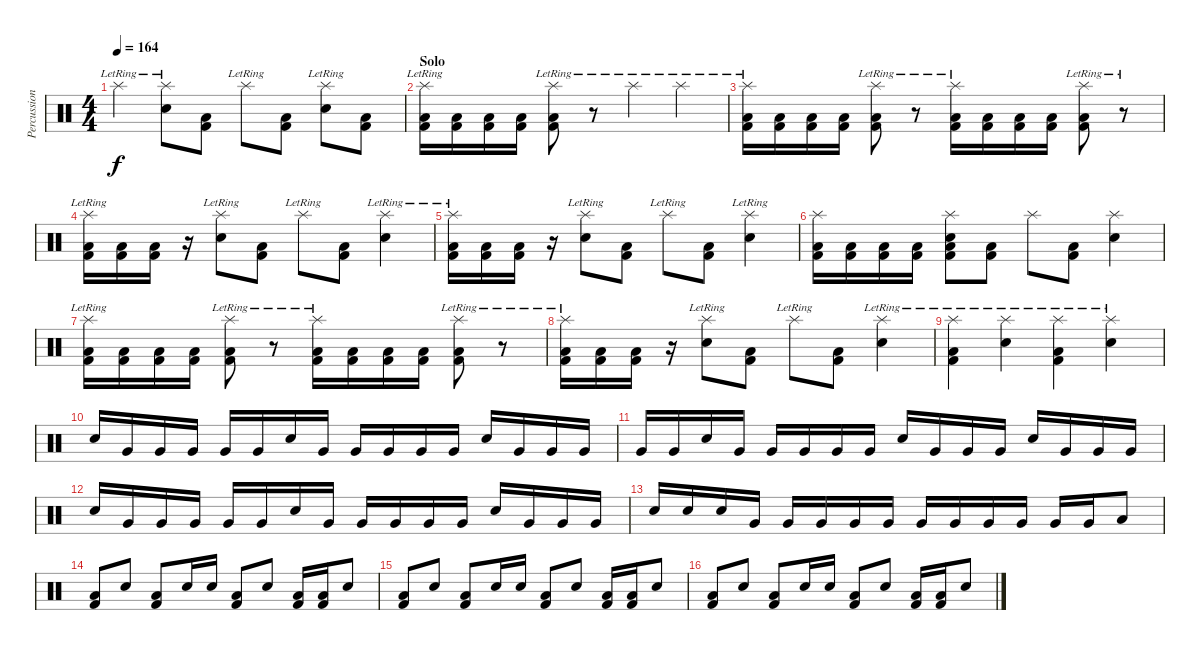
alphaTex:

\track ("Percussion" "Percussion") {instrument percussion}
\staff {score}
\articulation defaults
\ts (4 4)
\tempo 164
\clef neutral
\ks c "Splash (hit)"{lr}.4{dy f}
("Splash (hit)"{lr} "Snare (hit) 2").8 ("Low Floor Tom (hit)" "Kick (hit) 2").8 "Splash (hit)"{lr}.8 ("Low Floor Tom (hit)" "Kick (hit) 2").8 ("Splash (hit)"{lr} "Snare (hit) 2").8 ("Low Floor Tom (hit)" "Kick (hit) 2").8 |
\section ("" "Solo")
("Splash (hit)"{lr} "Low Floor Tom (hit)" "Kick (hit) 2").16 ("Low Floor Tom (hit)" "Kick (hit) 2").16 ("Low Floor Tom (hit)" "Kick (hit) 2").16 ("Low Floor Tom (hit)" "Kick (hit) 2").16 ("Splash (hit)"{lr} "Low Floor Tom (hit)" "Kick (hit) 2").8 r.8 "Splash (hit)"{lr}.4 "Splash (hit)"{lr}.4 |
("Splash (hit)"{lr} "Low Floor Tom (hit)" "Kick (hit) 2").16 ("Low Floor Tom (hit)" "Kick (hit) 2").16 ("Low Floor Tom (hit)" "Kick (hit) 2").16 ("Low Floor Tom (hit)" "Kick (hit) 2").16 ("Splash (hit)"{lr} "Low Floor Tom (hit)" "Kick (hit) 2").8 r.8 ("Splash (hit)"{lr} "Low Floor Tom (hit)" "Kick (hit) 2").16 ("Low Floor Tom (hit)" "Kick (hit) 2").16 ("Low Floor Tom (hit)" "Kick (hit) 2").16 ("Low Floor Tom (hit)" "Kick (hit) 2").16 ("Splash (hit)"{lr} "Low Floor Tom (hit)" "Kick (hit) 2").8 r.8 |
("Splash (hit)"{lr} "Low Floor Tom (hit)" "Kick (hit) 2").16 ("Low Floor Tom (hit)" "Kick (hit) 2").16 ("Low Floor Tom (hit)" "Kick (hit) 2").16 r.16 ("Splash (hit)"{lr} "Snare (hit) 2").8 ("Low Floor Tom (hit)" "Kick (hit) 2").8 "Splash (hit)"{lr}.8 ("Low Floor Tom (hit)" "Kick (hit) 2").8 ("Splash (hit)"{lr} "Snare (hit) 2").4 |
("Splash (hit)"{lr} "Low Floor Tom (hit)" "Kick (hit) 2").16 ("Low Floor Tom (hit)" "Kick (hit) 2").16 ("Low Floor Tom (hit)" "Kick (hit) 2").16 r.16 ("Splash (hit)"{lr} "Snare (hit) 2").8 ("Low Floor Tom (hit)" "Kick (hit) 2").8 "Splash (hit)"{lr}.8 ("Low Floor Tom (hit)" "Kick (hit) 2").8 ("Splash (hit)"{lr} "Snare (hit) 2").4 |
("Splash (hit)" "Low Floor Tom (hit)" "Kick (hit) 2").16 ("Low Floor Tom (hit)" "Kick (hit) 2").16 ("Low Floor Tom (hit)" "Kick (hit) 2").16 ("Low Floor Tom (hit)" "Kick (hit) 2").16 ("Splash (hit)" "Snare (hit) 2" "Low Floor Tom (hit)" "Kick (hit) 2").8 ("Low Floor Tom (hit)" "Kick (hit) 2").8 "Splash (hit)".8 ("Low Floor Tom (hit)" "Kick (hit) 2").8 ("Splash (hit)" "Snare (hit) 2").4 |
("Splash (hit)"{lr} "Low Floor Tom (hit)" "Kick (hit) 2").16 ("Low Floor Tom (hit)" "Kick (hit) 2").16 ("Low Floor Tom (hit)" "Kick (hit) 2").16 ("Low Floor Tom (hit)" "Kick (hit) 2").16 ("Splash (hit)"{lr} "Low Floor Tom (hit)" "Kick (hit) 2").8 r.8 ("Splash (hit)"{lr} "Low Floor Tom (hit)" "Kick (hit) 2").16 ("Low Floor Tom (hit)" "Kick (hit) 2").16 ("Low Floor Tom (hit)" "Kick (hit) 2").16 ("Low Floor Tom (hit)" "Kick (hit) 2").16 ("Splash (hit)"{lr} "Low Floor Tom (hit)" "Kick (hit) 2").8 r.8 |
("Splash (hit)"{lr} "Low Floor Tom (hit)" "Kick (hit) 2").16 ("Low Floor Tom (hit)" "Kick (hit) 2").16 ("Low Floor Tom (hit)" "Kick (hit) 2").16 r.16 ("Splash (hit)"{lr} "Snare (hit) 2").8 ("Low Floor Tom (hit)" "Kick (hit) 2").8 "Splash (hit)"{lr}.8 ("Low Floor Tom (hit)" "Kick (hit) 2").8 ("Splash (hit)"{lr} "Snare (hit) 2").4 |
("Splash (hit)"{lr} "Low Floor Tom (hit)" "Kick (hit) 2").4 ("Splash (hit)"{lr} "Snare (hit) 2").4 ("Splash (hit)"{lr} "Low Floor Tom (hit)" "Kick (hit) 2").4 ("Splash (hit)"{lr} "Snare (hit) 2").4 |
"Snare (hit) 2".16 "Very Low Tom (hit)".16 "Very Low Tom (hit)".16 "Very Low Tom (hit)".16 "Very Low Tom (hit)".16 "Very Low Tom (hit)".16 "Snare (hit) 2".16 "Very Low Tom (hit)".16 "Very Low Tom (hit)".16 "Very Low Tom (hit)".16 "Very Low Tom (hit)".16 "Very Low Tom (hit)".16 "Snare (hit) 2".16 "Very Low Tom (hit)".16 "Very Low Tom (hit)".16 "Very Low Tom (hit)".16 |
"Very Low Tom (hit)".16 "Very Low Tom (hit)".16 "Snare (hit) 2".16 "Very Low Tom (hit)".16 "Very Low Tom (hit)".16 "Very Low Tom (hit)".16 "Very Low Tom (hit)".16 "Very Low Tom (hit)".16 "Snare (hit) 2".16 "Very Low Tom (hit)".16 "Very Low Tom (hit)".16 "Very Low Tom (hit)".16 "Snare (hit) 2".16 "Very Low Tom (hit)".16 "Very Low Tom (hit)".16 "Very Low Tom (hit)".16 |
"Snare (hit) 2".16 "Very Low Tom (hit)".16 "Very Low Tom (hit)".16 "Very Low Tom (hit)".16 "Very Low Tom (hit)".16 "Very Low Tom (hit)".16 "Snare (hit) 2".16 "Very Low Tom (hit)".16 "Very Low Tom (hit)".16 "Very Low Tom (hit)".16 "Very Low Tom (hit)".16 "Very Low Tom (hit)".16 "Snare (hit) 2".16 "Very Low Tom (hit)".16 "Very Low Tom (hit)".16 "Very Low Tom (hit)".16 |
"Snare (hit) 2".16 "Snare (hit) 2".16 "Snare (hit) 2".16 "Very Low Tom (hit)".16 "Very Low Tom (hit)".16 "Very Low Tom (hit)".16 "Very Low Tom (hit)".16 "Very Low Tom (hit)".16 "Very Low Tom (hit)".16 "Very Low Tom (hit)".16 "Very Low Tom (hit)".16 "Very Low Tom (hit)".16 "Very Low Tom (hit)".16 "Very Low Tom (hit)".16 "Low Tom (hit)".8 |
("Low Floor Tom (hit)" "Kick (hit) 2").8 "Snare (hit) 2".8 ("Low Floor Tom (hit)" "Kick (hit) 2").8 "Snare (hit) 2".16 "Snare (hit) 2".16 ("Low Floor Tom (hit)" "Kick (hit) 2").8 "Snare (hit) 2".8 ("Low Floor Tom (hit)" "Kick (hit) 2").16 ("Low Floor Tom (hit)" "Kick (hit) 2").16 "Snare (hit) 2".8 |
("Low Floor Tom (hit)" "Kick (hit) 2").8 "Snare (hit) 2".8 ("Low Floor Tom (hit)" "Kick (hit) 2").8 "Snare (hit) 2".16 "Snare (hit) 2".16 ("Low Floor Tom (hit)" "Kick (hit) 2").8 "Snare (hit) 2".8 ("Low Floor Tom (hit)" "Kick (hit) 2").16 ("Low Floor Tom (hit)" "Kick (hit) 2").16 "Snare (hit) 2".8 |
("Low Floor Tom (hit)" "Kick (hit) 2").8 "Snare (hit) 2".8 ("Low Floor Tom (hit)" "Kick (hit) 2").8 "Snare (hit) 2".16 "Snare (hit) 2".16 ("Low Floor Tom (hit)" "Kick (hit) 2").8 "Snare (hit) 2".8 ("Low Floor Tom (hit)" "Kick (hit) 2").16 ("Low Floor Tom (hit)" "Kick (hit) 2").16 "Snare (hit) 2".8
